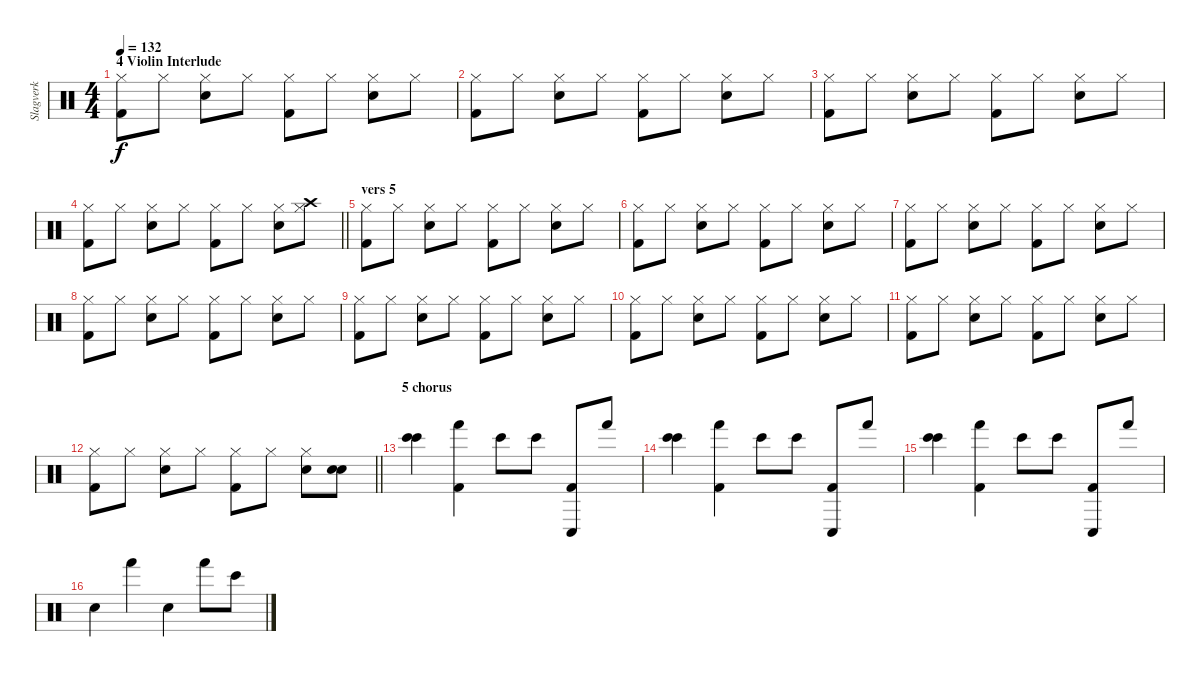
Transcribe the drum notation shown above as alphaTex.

\track ("Slagverk" "Slagverk") {instrument percussion}
\staff {score}
\articulation defaults
\ts (4 4)
\section ("" "4 Violin Interlude")
\tempo 132
\clef neutral
\ks c
("Kick (hit) 2" "Hi-Hat (closed)").8{dy f} "Hi-Hat (closed)".8 ("Snare (hit) 2" "Hi-Hat (closed)").8 "Hi-Hat (closed)".8 ("Kick (hit) 2" "Hi-Hat (closed)").8 "Hi-Hat (closed)".8 ("Snare (hit) 2" "Hi-Hat (closed)").8 "Hi-Hat (closed)".8 |
("Kick (hit) 2" "Hi-Hat (closed)").8 "Hi-Hat (closed)".8 ("Snare (hit) 2" "Hi-Hat (closed)").8 "Hi-Hat (closed)".8 ("Kick (hit) 2" "Hi-Hat (closed)").8 "Hi-Hat (closed)".8 ("Snare (hit) 2" "Hi-Hat (closed)").8 "Hi-Hat (closed)".8 |
("Kick (hit) 2" "Hi-Hat (closed)").8 "Hi-Hat (closed)".8 ("Snare (hit) 2" "Hi-Hat (closed)").8 "Hi-Hat (closed)".8 ("Kick (hit) 2" "Hi-Hat (closed)").8 "Hi-Hat (closed)".8 ("Snare (hit) 2" "Hi-Hat (closed)").8 "Hi-Hat (closed)".8 |
\barLineRight lightlight
("Kick (hit) 2" "Hi-Hat (closed)").8 "Hi-Hat (closed)".8 ("Snare (hit) 2" "Hi-Hat (closed)").8 "Hi-Hat (closed)".8 ("Kick (hit) 2" "Hi-Hat (closed)").8 "Hi-Hat (closed)".8 ("Snare (hit) 2" "Hi-Hat (closed)").8 ("Hi-Hat (closed)" "Crash high (hit)").8 |
\section ("" "vers 5")
("Kick (hit) 2" "Hi-Hat (closed)").8 "Hi-Hat (closed)".8 ("Snare (hit) 2" "Hi-Hat (closed)").8 "Hi-Hat (closed)".8 ("Kick (hit) 2" "Hi-Hat (closed)").8 "Hi-Hat (closed)".8 ("Snare (hit) 2" "Hi-Hat (closed)").8 "Hi-Hat (closed)".8 |
("Kick (hit) 2" "Hi-Hat (closed)").8 "Hi-Hat (closed)".8 ("Snare (hit) 2" "Hi-Hat (closed)").8 "Hi-Hat (closed)".8 ("Kick (hit) 2" "Hi-Hat (closed)").8 "Hi-Hat (closed)".8 ("Snare (hit) 2" "Hi-Hat (closed)").8 "Hi-Hat (closed)".8 |
("Kick (hit) 2" "Hi-Hat (closed)").8 "Hi-Hat (closed)".8 ("Snare (hit) 2" "Hi-Hat (closed)").8 "Hi-Hat (closed)".8 ("Kick (hit) 2" "Hi-Hat (closed)").8 "Hi-Hat (closed)".8 ("Snare (hit) 2" "Hi-Hat (closed)").8 "Hi-Hat (closed)".8 |
("Kick (hit) 2" "Hi-Hat (closed)").8 "Hi-Hat (closed)".8 ("Snare (hit) 2" "Hi-Hat (closed)").8 "Hi-Hat (closed)".8 ("Kick (hit) 2" "Hi-Hat (closed)").8 "Hi-Hat (closed)".8 ("Snare (hit) 2" "Hi-Hat (closed)").8 "Hi-Hat (closed)".8 |
("Kick (hit) 2" "Hi-Hat (closed)").8 "Hi-Hat (closed)".8 ("Snare (hit) 2" "Hi-Hat (closed)").8 "Hi-Hat (closed)".8 ("Kick (hit) 2" "Hi-Hat (closed)").8 "Hi-Hat (closed)".8 ("Snare (hit) 2" "Hi-Hat (closed)").8 "Hi-Hat (closed)".8 |
("Kick (hit) 2" "Hi-Hat (closed)").8 "Hi-Hat (closed)".8 ("Snare (hit) 2" "Hi-Hat (closed)").8 "Hi-Hat (closed)".8 ("Kick (hit) 2" "Hi-Hat (closed)").8 "Hi-Hat (closed)".8 ("Snare (hit) 2" "Hi-Hat (closed)").8 "Hi-Hat (closed)".8 |
("Kick (hit) 2" "Hi-Hat (closed)").8 "Hi-Hat (closed)".8 ("Snare (hit) 2" "Hi-Hat (closed)").8 "Hi-Hat (closed)".8 ("Kick (hit) 2" "Hi-Hat (closed)").8 "Hi-Hat (closed)".8 ("Snare (hit) 2" "Hi-Hat (closed)").8 "Hi-Hat (closed)".8 |
\barLineRight lightlight
("Kick (hit) 2" "Hi-Hat (closed)").8 "Hi-Hat (closed)".8 ("Snare (hit) 2" "Hi-Hat (closed)").8 "Hi-Hat (closed)".8 ("Kick (hit) 2" "Hi-Hat (closed)").8 "Hi-Hat (closed)".8 ("Snare (hit) 2" "Hi-Hat (closed)").8 ("Snare (hit) 2" "Snare (hit) 2").8{volume 14} |
\section ("" "5 chorus")
("Bongo High (hit)" "Bongo High (hit)").4 ("Kick (hit) 2" "Hand (hit)").4 "Bongo High (hit)".8 "Bongo High (hit)".8 ("Kick (hit) 2" "Conga low (hit)").8 "Hand (hit)".8 |
("Bongo High (hit)" "Bongo High (hit)").4 ("Kick (hit) 2" "Hand (hit)").4 "Bongo High (hit)".8 "Bongo High (hit)".8 ("Kick (hit) 2" "Conga low (hit)").8 "Hand (hit)".8 |
("Bongo High (hit)" "Bongo High (hit)").4 ("Kick (hit) 2" "Hand (hit)").4 "Bongo High (hit)".8 "Bongo High (hit)".8 ("Kick (hit) 2" "Conga low (hit)").8 "Hand (hit)".8 |
"Snare (hit) 2".4 "Hand (hit)".4 "Snare (hit) 2".4 "Hand (hit)".8 "Bongo High (hit)".8
